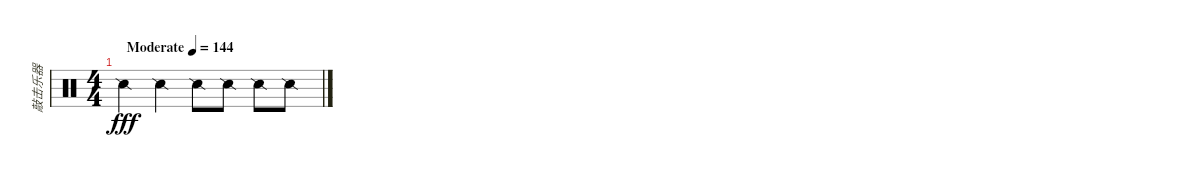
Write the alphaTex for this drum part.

\track ("敲击乐器" "敲击乐器") {instrument percussion}
\staff {score}
\articulation defaults
\ts (4 4)
\tempo (144 "Moderate")
\clef neutral
\ks c "Snare (side stick) 2".4{dy fff} "Snare (side stick) 2".4 "Snare (side stick) 2".8 "Snare (side stick) 2".8 "Snare (side stick) 2".8 "Snare (side stick) 2".8
